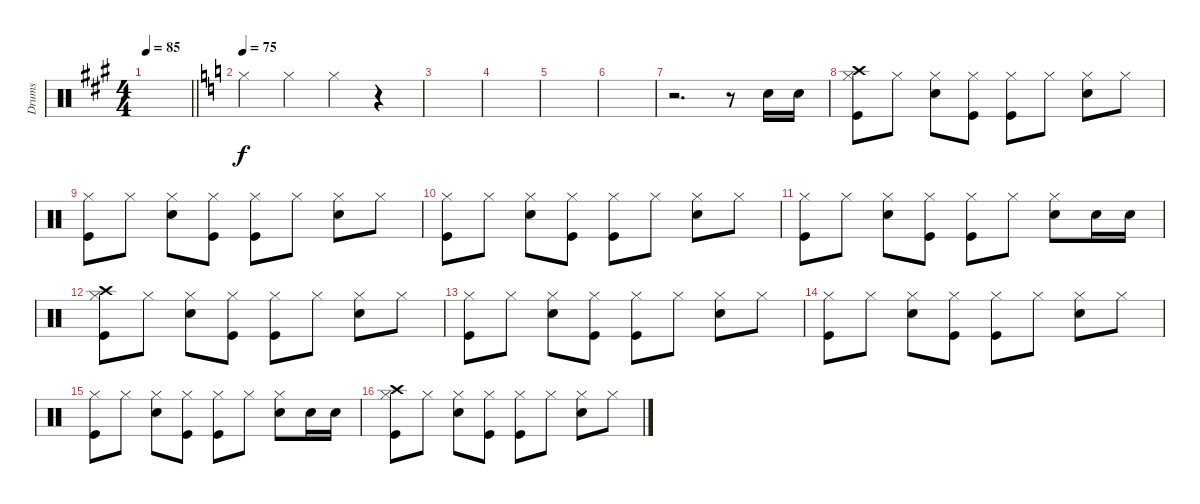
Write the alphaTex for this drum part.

\track ("Drums" "Drums") {instrument percussion}
\staff {score}
\articulation defaults
\ts (4 4)
\tempo 85
\clef neutral
\barLineRight lightlight
\ks a
|
\tempo 75
\ks c "Hi-Hat (closed)".4 "Hi-Hat (closed)".4 "Hi-Hat (closed)".4
r.4 |
|
|
|
|
r.2{d} r.8 "Snare (hit) 2".16 "Snare (hit) 2".16 |
("Crash high (hit)" "Hi-Hat (closed)" "Kick (hit)").8 "Hi-Hat (closed)".8 ("Hi-Hat (closed)" "Snare (hit) 2").8 ("Hi-Hat (closed)" "Kick (hit)").8 ("Hi-Hat (closed)" "Kick (hit)").8 "Hi-Hat (closed)".8 ("Hi-Hat (closed)" "Snare (hit) 2").8 "Hi-Hat (closed)".8 |
("Hi-Hat (closed)" "Kick (hit)").8 "Hi-Hat (closed)".8 ("Hi-Hat (closed)" "Snare (hit) 2").8 ("Hi-Hat (closed)" "Kick (hit)").8 ("Hi-Hat (closed)" "Kick (hit)").8 "Hi-Hat (closed)".8 ("Hi-Hat (closed)" "Snare (hit) 2").8 "Hi-Hat (closed)".8 |
("Hi-Hat (closed)" "Kick (hit)").8 "Hi-Hat (closed)".8 ("Hi-Hat (closed)" "Snare (hit) 2").8 ("Hi-Hat (closed)" "Kick (hit)").8 ("Hi-Hat (closed)" "Kick (hit)").8 "Hi-Hat (closed)".8 ("Hi-Hat (closed)" "Snare (hit) 2").8 "Hi-Hat (closed)".8 |
("Hi-Hat (closed)" "Kick (hit)").8 "Hi-Hat (closed)".8 ("Hi-Hat (closed)" "Snare (hit) 2").8 ("Hi-Hat (closed)" "Kick (hit)").8 ("Hi-Hat (closed)" "Kick (hit)").8 "Hi-Hat (closed)".8 ("Hi-Hat (closed)" "Snare (hit) 2").8 "Snare (hit) 2".16 "Snare (hit) 2".16 |
("Crash high (hit)" "Hi-Hat (closed)" "Kick (hit)").8 "Hi-Hat (closed)".8 ("Hi-Hat (closed)" "Snare (hit) 2").8 ("Hi-Hat (closed)" "Kick (hit)").8 ("Hi-Hat (closed)" "Kick (hit)").8 "Hi-Hat (closed)".8 ("Hi-Hat (closed)" "Snare (hit) 2").8 "Hi-Hat (closed)".8 |
("Hi-Hat (closed)" "Kick (hit)").8 "Hi-Hat (closed)".8 ("Hi-Hat (closed)" "Snare (hit) 2").8 ("Hi-Hat (closed)" "Kick (hit)").8 ("Hi-Hat (closed)" "Kick (hit)").8 "Hi-Hat (closed)".8 ("Hi-Hat (closed)" "Snare (hit) 2").8 "Hi-Hat (closed)".8 |
("Hi-Hat (closed)" "Kick (hit)").8 "Hi-Hat (closed)".8 ("Hi-Hat (closed)" "Snare (hit) 2").8 ("Hi-Hat (closed)" "Kick (hit)").8 ("Hi-Hat (closed)" "Kick (hit)").8 "Hi-Hat (closed)".8 ("Hi-Hat (closed)" "Snare (hit) 2").8 "Hi-Hat (closed)".8 |
("Hi-Hat (closed)" "Kick (hit)").8 "Hi-Hat (closed)".8 ("Hi-Hat (closed)" "Snare (hit) 2").8 ("Hi-Hat (closed)" "Kick (hit)").8 ("Hi-Hat (closed)" "Kick (hit)").8 "Hi-Hat (closed)".8 ("Hi-Hat (closed)" "Snare (hit) 2").8 "Snare (hit) 2".16 "Snare (hit) 2".16 |
("Crash high (hit)" "Hi-Hat (closed)" "Kick (hit)").8 "Hi-Hat (closed)".8 ("Hi-Hat (closed)" "Snare (hit) 2").8 ("Hi-Hat (closed)" "Kick (hit)").8 ("Hi-Hat (closed)" "Kick (hit)").8 "Hi-Hat (closed)".8 ("Hi-Hat (closed)" "Snare (hit) 2").8 "Hi-Hat (closed)".8
